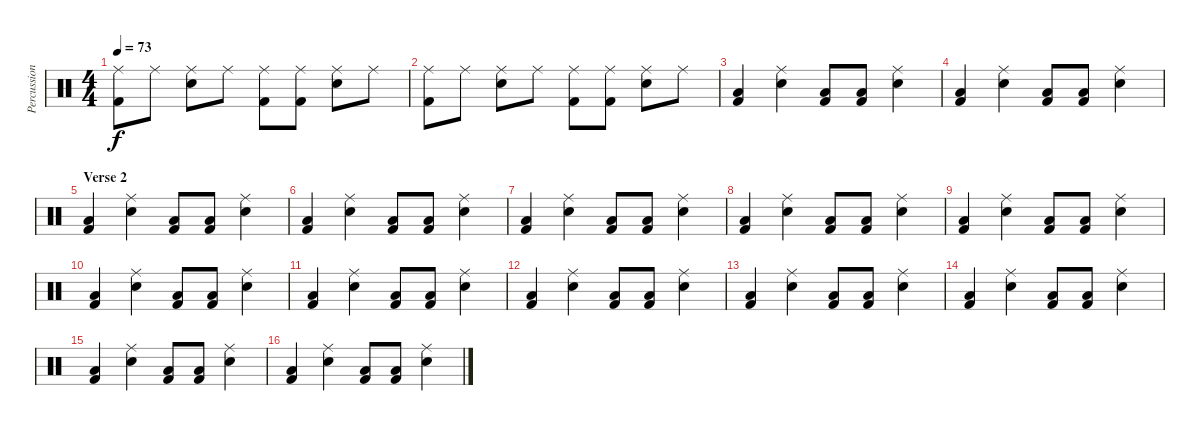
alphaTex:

\track ("Percussion" "Percussion") {instrument percussion}
\staff {score}
\articulation defaults
\ts (4 4)
\tempo 73
\clef neutral
\ks c
("Ride (middle)" "Kick (hit) 2").8{dy f} "Ride (middle)".8 ("Ride (middle)" "Electric Snare (hit)").8 "Ride (middle)".8 ("Ride (middle)" "Kick (hit) 2").8 ("Ride (middle)" "Kick (hit) 2").8 ("Ride (middle)" "Electric Snare (hit)").8 "Ride (middle)".8 |
("Ride (middle)" "Kick (hit) 2").8 "Ride (middle)".8 ("Ride (middle)" "Electric Snare (hit)").8 "Ride (middle)".8 ("Ride (middle)" "Kick (hit) 2").8 ("Ride (middle)" "Kick (hit) 2").8 ("Ride (middle)" "Electric Snare (hit)").8 "Ride (middle)".8 |
("Low Floor Tom (hit)" "Kick (hit) 2").4 ("Ride (middle)" "Electric Snare (hit)").4 ("Low Floor Tom (hit)" "Kick (hit) 2").8 ("Low Floor Tom (hit)" "Kick (hit) 2").8 ("Ride (middle)" "Electric Snare (hit)").4 |
("Low Floor Tom (hit)" "Kick (hit) 2").4 ("Ride (middle)" "Electric Snare (hit)").4 ("Low Floor Tom (hit)" "Kick (hit) 2").8 ("Low Floor Tom (hit)" "Kick (hit) 2").8 ("Ride (middle)" "Electric Snare (hit)").4 |
\section ("" "Verse 2")
("Low Floor Tom (hit)" "Kick (hit) 2").4 ("Ride (middle)" "Electric Snare (hit)").4 ("Low Floor Tom (hit)" "Kick (hit) 2").8 ("Low Floor Tom (hit)" "Kick (hit) 2").8 ("Ride (middle)" "Electric Snare (hit)").4 |
("Low Floor Tom (hit)" "Kick (hit) 2").4 ("Ride (middle)" "Electric Snare (hit)").4 ("Low Floor Tom (hit)" "Kick (hit) 2").8 ("Low Floor Tom (hit)" "Kick (hit) 2").8 ("Ride (middle)" "Electric Snare (hit)").4 |
("Low Floor Tom (hit)" "Kick (hit) 2").4 ("Ride (middle)" "Electric Snare (hit)").4 ("Low Floor Tom (hit)" "Kick (hit) 2").8 ("Low Floor Tom (hit)" "Kick (hit) 2").8 ("Ride (middle)" "Electric Snare (hit)").4 |
("Low Floor Tom (hit)" "Kick (hit) 2").4 ("Ride (middle)" "Electric Snare (hit)").4 ("Low Floor Tom (hit)" "Kick (hit) 2").8 ("Low Floor Tom (hit)" "Kick (hit) 2").8 ("Ride (middle)" "Electric Snare (hit)").4 |
("Low Floor Tom (hit)" "Kick (hit) 2").4 ("Ride (middle)" "Electric Snare (hit)").4 ("Low Floor Tom (hit)" "Kick (hit) 2").8 ("Low Floor Tom (hit)" "Kick (hit) 2").8 ("Ride (middle)" "Electric Snare (hit)").4 |
("Low Floor Tom (hit)" "Kick (hit) 2").4 ("Ride (middle)" "Electric Snare (hit)").4 ("Low Floor Tom (hit)" "Kick (hit) 2").8 ("Low Floor Tom (hit)" "Kick (hit) 2").8 ("Ride (middle)" "Electric Snare (hit)").4 |
("Low Floor Tom (hit)" "Kick (hit) 2").4 ("Ride (middle)" "Electric Snare (hit)").4 ("Low Floor Tom (hit)" "Kick (hit) 2").8 ("Low Floor Tom (hit)" "Kick (hit) 2").8 ("Ride (middle)" "Electric Snare (hit)").4 |
("Low Floor Tom (hit)" "Kick (hit) 2").4 ("Ride (middle)" "Electric Snare (hit)").4 ("Low Floor Tom (hit)" "Kick (hit) 2").8 ("Low Floor Tom (hit)" "Kick (hit) 2").8 ("Ride (middle)" "Electric Snare (hit)").4 |
("Low Floor Tom (hit)" "Kick (hit) 2").4 ("Ride (middle)" "Electric Snare (hit)").4 ("Low Floor Tom (hit)" "Kick (hit) 2").8 ("Low Floor Tom (hit)" "Kick (hit) 2").8 ("Ride (middle)" "Electric Snare (hit)").4 |
("Low Floor Tom (hit)" "Kick (hit) 2").4 ("Ride (middle)" "Electric Snare (hit)").4 ("Low Floor Tom (hit)" "Kick (hit) 2").8 ("Low Floor Tom (hit)" "Kick (hit) 2").8 ("Ride (middle)" "Electric Snare (hit)").4 |
("Low Floor Tom (hit)" "Kick (hit) 2").4 ("Ride (middle)" "Electric Snare (hit)").4 ("Low Floor Tom (hit)" "Kick (hit) 2").8 ("Low Floor Tom (hit)" "Kick (hit) 2").8 ("Ride (middle)" "Electric Snare (hit)").4 |
("Low Floor Tom (hit)" "Kick (hit) 2").4 ("Ride (middle)" "Electric Snare (hit)").4 ("Low Floor Tom (hit)" "Kick (hit) 2").8 ("Low Floor Tom (hit)" "Kick (hit) 2").8 ("Ride (middle)" "Electric Snare (hit)").4
